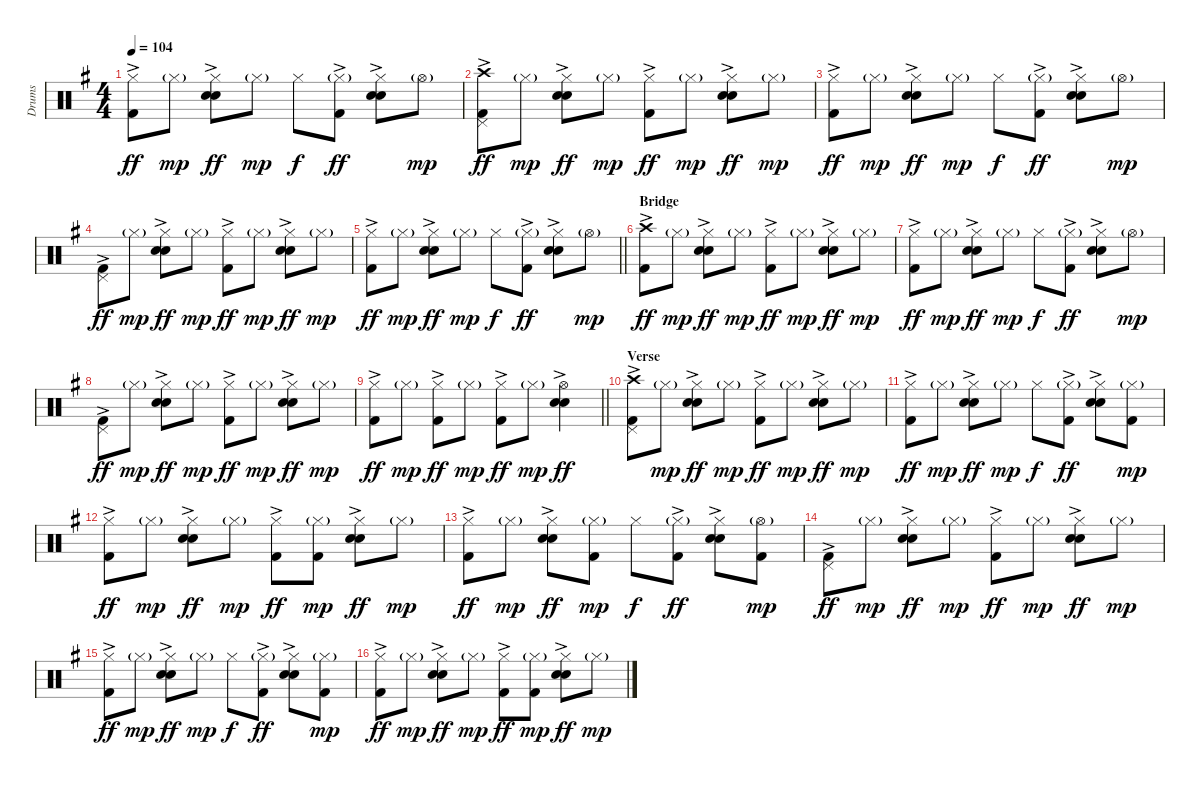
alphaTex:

\track ("Drums" "Drums") {instrument percussion}
\staff {score}
\articulation defaults
\ts (4 4)
\tempo 104
\clef neutral
\ks g
("Hi-Hat (closed)" "Kick (hit) 2"{ac}).8{dy ff} "Hi-Hat (closed)"{g}.8{dy mp} ("Hi-Hat (closed)" "Electric Snare (hit)"{ac} "Snare (hit) 2").8{dy ff} "Hi-Hat (closed)"{g}.8{dy mp} "Hi-Hat (closed)".8{dy f} ("Hi-Hat (closed)"{g} "Kick (hit) 2"{ac}).8{dy ff} ("Hi-Hat (closed)" "Electric Snare (hit)"{ac} "Snare (hit) 2").8 "Hi-Hat (open)"{g}.8{dy mp} |
("Pedal Hi-Hat (hit)" "Crash high (hit)" "Kick (hit) 2"{ac}).8{dy ff} "Hi-Hat (closed)"{g}.8{dy mp} ("Hi-Hat (closed)" "Electric Snare (hit)"{ac} "Snare (hit) 2").8{dy ff} "Hi-Hat (closed)"{g}.8{dy mp} ("Hi-Hat (closed)" "Kick (hit) 2"{ac}).8{dy ff} "Hi-Hat (closed)"{g}.8{dy mp} ("Hi-Hat (closed)" "Electric Snare (hit)"{ac} "Snare (hit) 2").8{dy ff} "Hi-Hat (closed)"{g}.8{dy mp} |
("Hi-Hat (closed)" "Kick (hit) 2"{ac}).8{dy ff} "Hi-Hat (closed)"{g}.8{dy mp} ("Hi-Hat (closed)" "Electric Snare (hit)"{ac} "Snare (hit) 2").8{dy ff} "Hi-Hat (closed)"{g}.8{dy mp} "Hi-Hat (closed)".8{dy f} ("Hi-Hat (closed)"{g} "Kick (hit) 2"{ac}).8{dy ff} ("Hi-Hat (closed)" "Electric Snare (hit)"{ac} "Snare (hit) 2").8 "Hi-Hat (open)"{g}.8{dy mp} |
("Pedal Hi-Hat (hit)" "Kick (hit) 2"{ac}).8{dy ff} "Hi-Hat (closed)"{g}.8{dy mp} ("Hi-Hat (closed)" "Electric Snare (hit)"{ac} "Snare (hit) 2").8{dy ff} "Hi-Hat (closed)"{g}.8{dy mp} ("Hi-Hat (closed)" "Kick (hit) 2"{ac}).8{dy ff} "Hi-Hat (closed)"{g}.8{dy mp} ("Hi-Hat (closed)" "Electric Snare (hit)"{ac} "Snare (hit) 2").8{dy ff} "Hi-Hat (closed)"{g}.8{dy mp} |
\barLineRight lightlight
("Hi-Hat (closed)" "Kick (hit) 2"{ac}).8{dy ff} "Hi-Hat (closed)"{g}.8{dy mp} ("Hi-Hat (closed)" "Electric Snare (hit)"{ac} "Snare (hit) 2").8{dy ff} "Hi-Hat (closed)"{g}.8{dy mp} "Hi-Hat (closed)".8{dy f} ("Hi-Hat (closed)"{g} "Kick (hit) 2"{ac}).8{dy ff} ("Hi-Hat (closed)" "Electric Snare (hit)"{ac} "Snare (hit) 2").8 "Hi-Hat (open)"{g}.8{dy mp} |
\section ("" "Bridge")
("Crash high (hit)" "Kick (hit) 2"{ac}).8{dy ff} "Hi-Hat (closed)"{g}.8{dy mp} ("Hi-Hat (closed)" "Electric Snare (hit)"{ac} "Snare (hit) 2").8{dy ff} "Hi-Hat (closed)"{g}.8{dy mp} ("Hi-Hat (closed)" "Kick (hit) 2"{ac}).8{dy ff} "Hi-Hat (closed)"{g}.8{dy mp} ("Hi-Hat (closed)" "Electric Snare (hit)"{ac} "Snare (hit) 2").8{dy ff} "Hi-Hat (closed)"{g}.8{dy mp} |
("Hi-Hat (closed)" "Kick (hit) 2"{ac}).8{dy ff} "Hi-Hat (closed)"{g}.8{dy mp} ("Hi-Hat (closed)" "Electric Snare (hit)"{ac} "Snare (hit) 2").8{dy ff} "Hi-Hat (closed)"{g}.8{dy mp} "Hi-Hat (closed)".8{dy f} ("Hi-Hat (closed)"{g} "Kick (hit) 2"{ac}).8{dy ff} ("Hi-Hat (closed)" "Electric Snare (hit)"{ac} "Snare (hit) 2").8 "Hi-Hat (open)"{g}.8{dy mp} |
("Pedal Hi-Hat (hit)" "Kick (hit) 2"{ac}).8{dy ff} "Hi-Hat (closed)"{g}.8{dy mp} ("Hi-Hat (closed)" "Electric Snare (hit)"{ac} "Snare (hit) 2").8{dy ff} "Hi-Hat (closed)"{g}.8{dy mp} ("Hi-Hat (closed)" "Kick (hit) 2"{ac}).8{dy ff} "Hi-Hat (closed)"{g}.8{dy mp} ("Hi-Hat (closed)" "Electric Snare (hit)"{ac} "Snare (hit) 2").8{dy ff} "Hi-Hat (closed)"{g}.8{dy mp} |
\barLineRight lightlight
("Hi-Hat (closed)" "Kick (hit) 2"{ac}).8{dy ff} "Hi-Hat (closed)"{g}.8{dy mp} ("Hi-Hat (closed)" "Kick (hit) 2"{ac}).8{dy ff} "Hi-Hat (closed)"{g}.8{dy mp} ("Hi-Hat (closed)" "Kick (hit) 2"{ac}).8{dy ff} "Hi-Hat (closed)"{g}.8{dy mp} ("Hi-Hat (open)" "Electric Snare (hit)"{ac} "Snare (hit) 2").4{dy ff} |
\section ("" "Verse")
("Pedal Hi-Hat (hit)" "Crash high (hit)" "Kick (hit) 2"{ac}).8 "Hi-Hat (closed)"{g}.8{dy mp} ("Hi-Hat (closed)" "Electric Snare (hit)"{ac} "Snare (hit) 2").8{dy ff} "Hi-Hat (closed)"{g}.8{dy mp} ("Hi-Hat (closed)" "Kick (hit) 2"{ac}).8{dy ff} "Hi-Hat (closed)"{g}.8{dy mp} ("Hi-Hat (closed)" "Electric Snare (hit)"{ac} "Snare (hit) 2").8{dy ff} "Hi-Hat (closed)"{g}.8{dy mp} |
("Hi-Hat (closed)" "Kick (hit) 2"{ac}).8{dy ff} "Hi-Hat (closed)"{g}.8{dy mp} ("Hi-Hat (closed)" "Electric Snare (hit)"{ac} "Snare (hit) 2").8{dy ff} "Hi-Hat (closed)"{g}.8{dy mp} "Hi-Hat (closed)".8{dy f} ("Hi-Hat (closed)"{g} "Kick (hit) 2"{ac}).8{dy ff} ("Hi-Hat (closed)" "Electric Snare (hit)"{ac} "Snare (hit) 2").8 ("Hi-Hat (closed)"{g} "Kick (hit) 2").8{dy mp} |
("Hi-Hat (closed)" "Kick (hit) 2"{ac}).8{dy ff} "Hi-Hat (closed)"{g}.8{dy mp} ("Hi-Hat (closed)" "Electric Snare (hit)"{ac} "Snare (hit) 2").8{dy ff} "Hi-Hat (closed)"{g}.8{dy mp} ("Hi-Hat (closed)" "Kick (hit) 2"{ac}).8{dy ff} ("Hi-Hat (closed)"{g} "Kick (hit) 2").8{dy mp} ("Hi-Hat (closed)" "Electric Snare (hit)"{ac} "Snare (hit) 2").8{dy ff} "Hi-Hat (closed)"{g}.8{dy mp} |
("Hi-Hat (closed)" "Kick (hit) 2"{ac}).8{dy ff} "Hi-Hat (closed)"{g}.8{dy mp} ("Hi-Hat (closed)" "Electric Snare (hit)"{ac} "Snare (hit) 2").8{dy ff} ("Hi-Hat (closed)"{g} "Kick (hit) 2").8{dy mp} "Hi-Hat (closed)".8{dy f} ("Hi-Hat (closed)"{g} "Kick (hit) 2"{ac}).8{dy ff} ("Hi-Hat (closed)" "Electric Snare (hit)"{ac} "Snare (hit) 2").8 ("Hi-Hat (open)"{g} "Kick (hit) 2").8{dy mp} |
("Pedal Hi-Hat (hit)" "Kick (hit) 2"{ac}).8{dy ff} "Hi-Hat (closed)"{g}.8{dy mp} ("Hi-Hat (closed)" "Electric Snare (hit)"{ac} "Snare (hit) 2").8{dy ff} "Hi-Hat (closed)"{g}.8{dy mp} ("Hi-Hat (closed)" "Kick (hit) 2"{ac}).8{dy ff} "Hi-Hat (closed)"{g}.8{dy mp} ("Hi-Hat (closed)" "Electric Snare (hit)"{ac} "Snare (hit) 2").8{dy ff} "Hi-Hat (closed)"{g}.8{dy mp} |
("Hi-Hat (closed)" "Kick (hit) 2"{ac}).8{dy ff} "Hi-Hat (closed)"{g}.8{dy mp} ("Hi-Hat (closed)" "Electric Snare (hit)"{ac} "Snare (hit) 2").8{dy ff} "Hi-Hat (closed)"{g}.8{dy mp} "Hi-Hat (closed)".8{dy f} ("Hi-Hat (closed)"{g} "Kick (hit) 2"{ac}).8{dy ff} ("Hi-Hat (closed)" "Electric Snare (hit)"{ac} "Snare (hit) 2").8 ("Hi-Hat (closed)"{g} "Kick (hit) 2").8{dy mp} |
("Hi-Hat (closed)" "Kick (hit) 2"{ac}).8{dy ff} "Hi-Hat (closed)"{g}.8{dy mp} ("Hi-Hat (closed)" "Electric Snare (hit)"{ac} "Snare (hit) 2").8{dy ff} "Hi-Hat (closed)"{g}.8{dy mp} ("Hi-Hat (closed)" "Kick (hit) 2"{ac}).8{dy ff} ("Hi-Hat (closed)"{g} "Kick (hit) 2").8{dy mp} ("Hi-Hat (closed)" "Electric Snare (hit)"{ac} "Snare (hit) 2").8{dy ff} "Hi-Hat (closed)"{g}.8{dy mp}
